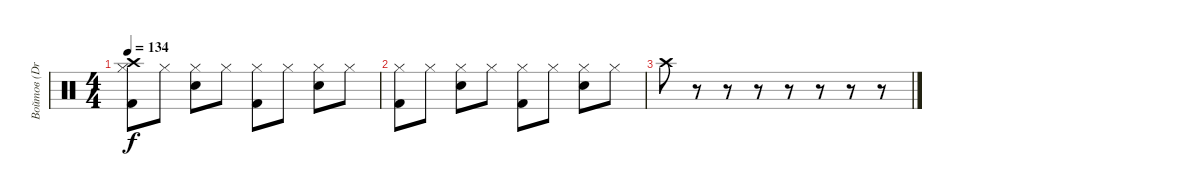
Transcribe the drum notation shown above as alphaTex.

\track ("Войтов (Drums)" "Войтов (Dr") {instrument percussion}
\staff {score}
\articulation defaults
\ts (4 4)
\tempo 134
\clef neutral
\ks c
("Hi-Hat (closed)" "Kick (hit) 2" "Crash high (hit)").8{dy f} "Hi-Hat (closed)".8 ("Hi-Hat (closed)" "Electric Snare (hit)").8 "Hi-Hat (closed)".8 ("Hi-Hat (closed)" "Kick (hit) 2").8 "Hi-Hat (closed)".8 ("Hi-Hat (closed)" "Electric Snare (hit)").8 "Hi-Hat (closed)".8 |
("Hi-Hat (closed)" "Kick (hit) 2").8 "Hi-Hat (closed)".8 ("Hi-Hat (closed)" "Electric Snare (hit)").8 "Hi-Hat (closed)".8 ("Hi-Hat (closed)" "Kick (hit) 2").8 "Hi-Hat (closed)".8 ("Hi-Hat (closed)" "Electric Snare (hit)").8 "Hi-Hat (closed)".8 |
"Crash high (hit)".8 r.8 r.8 r.8 r.8 r.8 r.8 r.8
